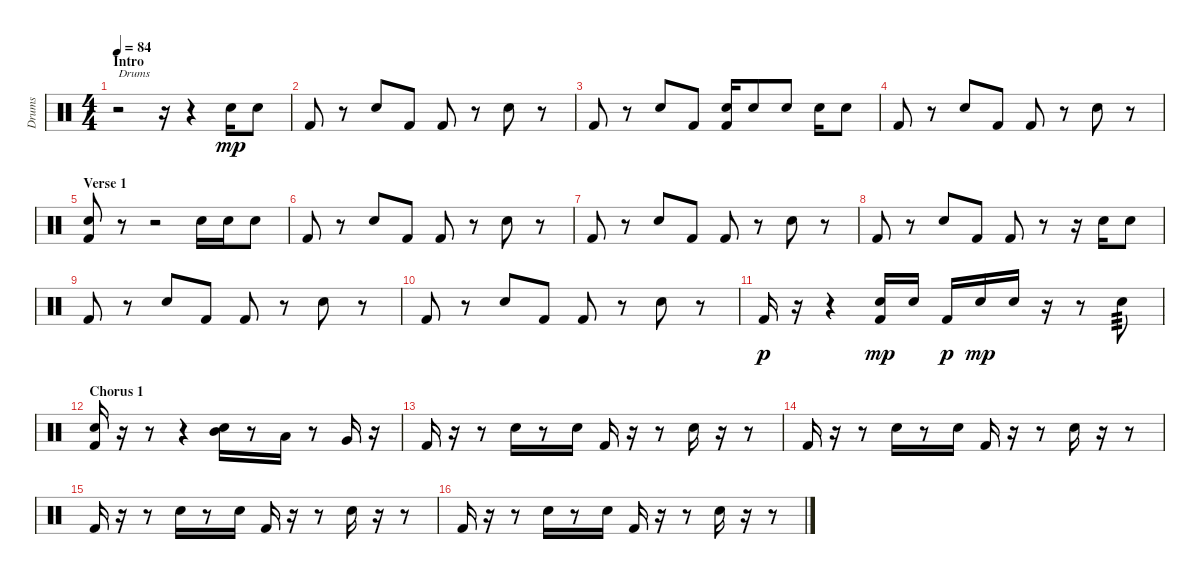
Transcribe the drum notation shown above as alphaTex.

\track ("Drums" "Drums") {instrument percussion}
\staff {score}
\articulation defaults
\ts (4 4)
\section ("" "Intro")
\tempo 84
\clef neutral
\ks c
r.2{txt "Drums" dy mp} r.16 r.4 "Snare (hit) 2".16 "Snare (hit) 2".8 |
"Kick (hit) 2".8 r.8 "Snare (hit) 2".8 "Kick (hit) 2".8 "Kick (hit) 2".8 r.8 "Snare (hit) 2".8 r.8 |
"Kick (hit) 2".8 r.8 "Snare (hit) 2".8 "Kick (hit) 2".8 ("Snare (hit) 2" "Kick (hit) 2").16 "Snare (hit) 2".8 "Snare (hit) 2".8 "Snare (hit) 2".16 "Snare (hit) 2".8 |
"Kick (hit) 2".8 r.8 "Snare (hit) 2".8 "Kick (hit) 2".8 "Kick (hit) 2".8 r.8 "Snare (hit) 2".8 r.8 |
\section ("" "Verse 1")
("Snare (hit) 2" "Kick (hit) 2").8 r.8 r.2 "Snare (hit) 2".16 "Snare (hit) 2".16 "Snare (hit) 2".8 |
"Kick (hit) 2".8 r.8 "Snare (hit) 2".8 "Kick (hit) 2".8 "Kick (hit) 2".8 r.8 "Snare (hit) 2".8 r.8 |
"Kick (hit) 2".8 r.8 "Snare (hit) 2".8 "Kick (hit) 2".8 "Kick (hit) 2".8 r.8 "Snare (hit) 2".8 r.8 |
"Kick (hit) 2".8 r.8 "Snare (hit) 2".8 "Kick (hit) 2".8 "Kick (hit) 2".8 r.8 r.16 "Snare (hit) 2".16 "Snare (hit) 2".8 |
"Kick (hit) 2".8 r.8 "Snare (hit) 2".8 "Kick (hit) 2".8 "Kick (hit) 2".8 r.8 "Snare (hit) 2".8 r.8 |
"Kick (hit) 2".8 r.8 "Snare (hit) 2".8 "Kick (hit) 2".8 "Kick (hit) 2".8 r.8 "Snare (hit) 2".8 r.8 |
"Kick (hit) 2".16{dy p} r.16 r.4 ("Snare (hit) 2" "Kick (hit) 2").16{dy mp} "Snare (hit) 2".16 "Kick (hit) 2".16{dy p} "Snare (hit) 2".16{dy mp} "Snare (hit) 2".16 r.16 r.8 "Snare (hit) 2".8{tp 3} |
\section ("" "Chorus 1")
("Snare (hit) 2" "Kick (hit) 2").16 r.16 r.8 r.4 ("Mid Tom (hit)" "Snare (hit) 2").16 r.8 "Low Tom (hit)".16 r.8 "Very Low Tom (hit)".16 r.16 |
"Kick (hit) 2".16 r.16 r.8 "Snare (hit) 2".16 r.8 "Snare (hit) 2".16 "Kick (hit) 2".16 r.16 r.8 "Snare (hit) 2".16 r.16 r.8 |
"Kick (hit) 2".16 r.16 r.8 "Snare (hit) 2".16 r.8 "Snare (hit) 2".16 "Kick (hit) 2".16 r.16 r.8 "Snare (hit) 2".16 r.16 r.8 |
"Kick (hit) 2".16 r.16 r.8 "Snare (hit) 2".16 r.8 "Snare (hit) 2".16 "Kick (hit) 2".16 r.16 r.8 "Snare (hit) 2".16 r.16 r.8 |
"Kick (hit) 2".16 r.16 r.8 "Snare (hit) 2".16 r.8 "Snare (hit) 2".16 "Kick (hit) 2".16 r.16 r.8 "Snare (hit) 2".16 r.16 r.8
